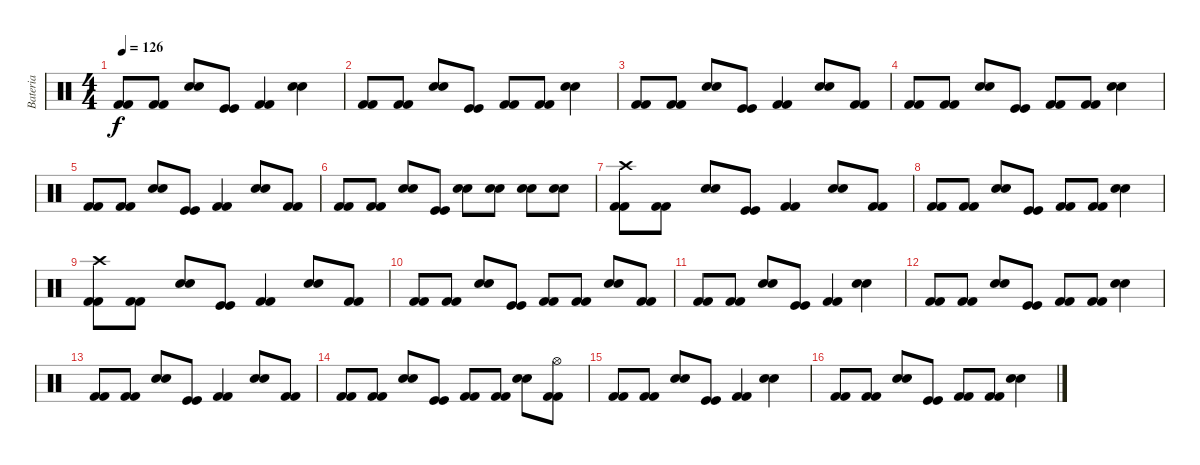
\track ("Bateria" "Bateria") {instrument percussion}
\staff {score}
\articulation defaults
\ts (4 4)
\tempo 126
\clef neutral
\ks c
("Kick (hit) 2" "Kick (hit) 2").8{dy f} ("Kick (hit) 2" "Kick (hit) 2").8 ("Electric Snare (hit)" "Snare (hit) 2").8 ("Kick (hit)" "Kick (hit)").8 ("Kick (hit) 2" "Kick (hit) 2").4 ("Electric Snare (hit)" "Snare (hit) 2").4 |
("Kick (hit) 2" "Kick (hit) 2").8 ("Kick (hit) 2" "Kick (hit) 2").8 ("Electric Snare (hit)" "Snare (hit) 2").8 ("Kick (hit)" "Kick (hit)").8 ("Kick (hit) 2" "Kick (hit) 2").8 ("Kick (hit) 2" "Kick (hit) 2").8 ("Electric Snare (hit)" "Snare (hit) 2").4 |
("Kick (hit) 2" "Kick (hit) 2").8 ("Kick (hit) 2" "Kick (hit) 2").8 ("Electric Snare (hit)" "Snare (hit) 2").8 ("Kick (hit)" "Kick (hit)").8 ("Kick (hit) 2" "Kick (hit) 2").4 ("Electric Snare (hit)" "Snare (hit) 2").8 ("Kick (hit) 2" "Kick (hit) 2").8 |
("Kick (hit) 2" "Kick (hit) 2").8 ("Kick (hit) 2" "Kick (hit) 2").8 ("Electric Snare (hit)" "Snare (hit) 2").8 ("Kick (hit)" "Kick (hit)").8 ("Kick (hit) 2" "Kick (hit) 2").8 ("Kick (hit) 2" "Kick (hit) 2").8 ("Electric Snare (hit)" "Snare (hit) 2").4 |
("Kick (hit) 2" "Kick (hit) 2").8 ("Kick (hit) 2" "Kick (hit) 2").8 ("Electric Snare (hit)" "Snare (hit) 2").8 ("Kick (hit)" "Kick (hit)").8 ("Kick (hit) 2" "Kick (hit) 2").4 ("Electric Snare (hit)" "Snare (hit) 2").8 ("Kick (hit) 2" "Kick (hit) 2").8 |
("Kick (hit) 2" "Kick (hit) 2").8 ("Kick (hit) 2" "Kick (hit) 2").8 ("Electric Snare (hit)" "Snare (hit) 2").8 ("Kick (hit)" "Kick (hit)").8 ("Electric Snare (hit)" "Snare (hit) 2").8 ("Electric Snare (hit)" "Snare (hit) 2").8 ("Electric Snare (hit)" "Snare (hit) 2").8 ("Electric Snare (hit)" "Snare (hit) 2").8 |
("Crash high (hit)" "Kick (hit) 2" "Kick (hit) 2").8 ("Kick (hit) 2" "Kick (hit) 2").8 ("Electric Snare (hit)" "Snare (hit) 2").8 ("Kick (hit)" "Kick (hit)").8 ("Kick (hit) 2" "Kick (hit) 2").4 ("Electric Snare (hit)" "Snare (hit) 2").8 ("Kick (hit) 2" "Kick (hit) 2").8 |
("Kick (hit) 2" "Kick (hit) 2").8 ("Kick (hit) 2" "Kick (hit) 2").8 ("Electric Snare (hit)" "Snare (hit) 2").8 ("Kick (hit)" "Kick (hit)").8 ("Kick (hit) 2" "Kick (hit) 2").8 ("Kick (hit) 2" "Kick (hit) 2").8 ("Electric Snare (hit)" "Snare (hit) 2").4 |
("Crash high (hit)" "Kick (hit) 2" "Kick (hit) 2").8 ("Kick (hit) 2" "Kick (hit) 2").8 ("Electric Snare (hit)" "Snare (hit) 2").8 ("Kick (hit)" "Kick (hit)").8 ("Kick (hit) 2" "Kick (hit) 2").4 ("Electric Snare (hit)" "Snare (hit) 2").8 ("Kick (hit) 2" "Kick (hit) 2").8 |
("Kick (hit) 2" "Kick (hit) 2").8 ("Kick (hit) 2" "Kick (hit) 2").8 ("Electric Snare (hit)" "Snare (hit) 2").8 ("Kick (hit)" "Kick (hit)").8 ("Kick (hit) 2" "Kick (hit) 2").8 ("Kick (hit) 2" "Kick (hit) 2").8 ("Electric Snare (hit)" "Snare (hit) 2").8 ("Kick (hit) 2" "Kick (hit) 2").8 |
("Kick (hit) 2" "Kick (hit) 2").8 ("Kick (hit) 2" "Kick (hit) 2").8 ("Electric Snare (hit)" "Snare (hit) 2").8 ("Kick (hit)" "Kick (hit)").8 ("Kick (hit) 2" "Kick (hit) 2").4 ("Electric Snare (hit)" "Snare (hit) 2").4 |
("Kick (hit) 2" "Kick (hit) 2").8 ("Kick (hit) 2" "Kick (hit) 2").8 ("Electric Snare (hit)" "Snare (hit) 2").8 ("Kick (hit)" "Kick (hit)").8 ("Kick (hit) 2" "Kick (hit) 2").8 ("Kick (hit) 2" "Kick (hit) 2").8 ("Electric Snare (hit)" "Snare (hit) 2").4 |
("Kick (hit) 2" "Kick (hit) 2").8 ("Kick (hit) 2" "Kick (hit) 2").8 ("Electric Snare (hit)" "Snare (hit) 2").8 ("Kick (hit)" "Kick (hit)").8 ("Kick (hit) 2" "Kick (hit) 2").4 ("Electric Snare (hit)" "Snare (hit) 2").8 ("Kick (hit) 2" "Kick (hit) 2").8 |
("Kick (hit) 2" "Kick (hit) 2").8 ("Kick (hit) 2" "Kick (hit) 2").8 ("Electric Snare (hit)" "Snare (hit) 2").8 ("Kick (hit)" "Kick (hit)").8 ("Kick (hit) 2" "Kick (hit) 2").8 ("Kick (hit) 2" "Kick (hit) 2").8 ("Electric Snare (hit)" "Snare (hit) 2").8 ("Hi-Hat (open)" "Kick (hit) 2" "Kick (hit) 2").8 |
("Kick (hit) 2" "Kick (hit) 2").8 ("Kick (hit) 2" "Kick (hit) 2").8 ("Electric Snare (hit)" "Snare (hit) 2").8 ("Kick (hit)" "Kick (hit)").8 ("Kick (hit) 2" "Kick (hit) 2").4 ("Electric Snare (hit)" "Snare (hit) 2").4 |
("Kick (hit) 2" "Kick (hit) 2").8 ("Kick (hit) 2" "Kick (hit) 2").8 ("Electric Snare (hit)" "Snare (hit) 2").8 ("Kick (hit)" "Kick (hit)").8 ("Kick (hit) 2" "Kick (hit) 2").8 ("Kick (hit) 2" "Kick (hit) 2").8 ("Electric Snare (hit)" "Snare (hit) 2").4
